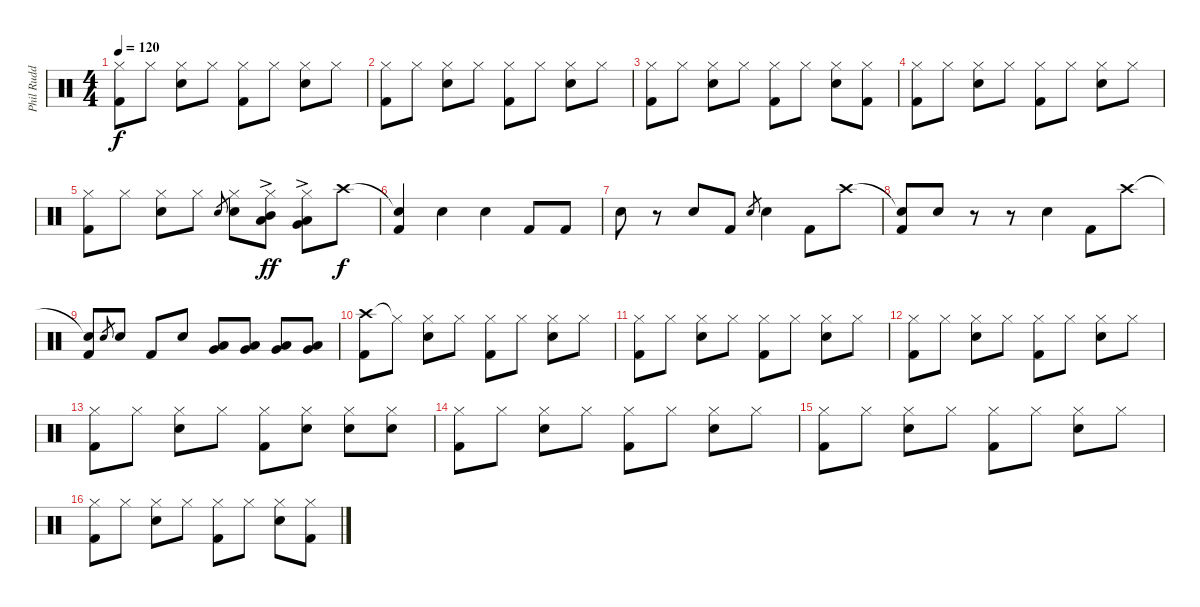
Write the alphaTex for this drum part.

\track ("Phil Rudd" "Phil Rudd") {instrument percussion}
\staff {score}
\articulation defaults
\ts (4 4)
\tempo 120
\clef neutral
\ks c
("Hi-Hat (closed)" "Kick (hit) 2").8{dy f} "Hi-Hat (closed)".8 ("Hi-Hat (closed)" "Snare (hit) 2").8 "Hi-Hat (closed)".8 ("Hi-Hat (closed)" "Kick (hit) 2").8 "Hi-Hat (closed)".8 ("Hi-Hat (closed)" "Snare (hit) 2").8 "Hi-Hat (closed)".8 |
("Hi-Hat (closed)" "Kick (hit) 2").8 "Hi-Hat (closed)".8 ("Hi-Hat (closed)" "Snare (hit) 2").8 "Hi-Hat (closed)".8 ("Hi-Hat (closed)" "Kick (hit) 2").8 "Hi-Hat (closed)".8 ("Hi-Hat (closed)" "Snare (hit) 2").8 "Hi-Hat (closed)".8 |
("Hi-Hat (closed)" "Kick (hit) 2").8 "Hi-Hat (closed)".8 ("Hi-Hat (closed)" "Snare (hit) 2").8 "Hi-Hat (closed)".8 ("Hi-Hat (closed)" "Kick (hit) 2").8 "Hi-Hat (closed)".8 ("Hi-Hat (closed)" "Snare (hit) 2").8 ("Hi-Hat (closed)" "Kick (hit) 2").8 |
("Hi-Hat (closed)" "Kick (hit) 2").8 "Hi-Hat (closed)".8 ("Hi-Hat (closed)" "Snare (hit) 2").8 "Hi-Hat (closed)".8 ("Hi-Hat (closed)" "Kick (hit) 2").8 "Hi-Hat (closed)".8 ("Hi-Hat (closed)" "Snare (hit) 2").8 "Hi-Hat (closed)".8 |
("Hi-Hat (closed)" "Kick (hit) 2").8 "Hi-Hat (closed)".8 ("Hi-Hat (closed)" "Snare (hit) 2").8 "Hi-Hat (closed)".8 "Snare (hit) 2".8{gr} ("Hi-Hat (closed)" "Snare (hit) 2").8 ("Hi-Hat (closed)" "Mid Tom (hit)"{ac} "Low Tom (hit)").8{dy ff balance 0} ("Hi-Hat (closed)" "Low Tom (hit)"{ac} "Very Low Tom (hit)").8{balance 16} "Crash high (hit)".8{dy f balance 8} |
("Snare (hit)"{t} "Kick (hit) 2").4 "Snare (hit) 2".4 "Snare (hit) 2".4 "Kick (hit) 2".8 "Kick (hit) 2".8 |
"Snare (hit) 2".8 r.8 "Snare (hit) 2".8 "Kick (hit) 2".8 "Snare (hit) 2".8{gr} "Snare (hit) 2".4 "Kick (hit) 2".8 "Crash high (hit)".8 |
("Snare (hit)"{t} "Kick (hit) 2").8 "Snare (hit) 2".8 r.8 r.8 "Snare (hit) 2".4 "Kick (hit) 2".8 "Crash high (hit)".8 |
("Snare (hit)"{t} "Kick (hit) 2").8 "Snare (hit) 2".8{gr} "Snare (hit) 2".8 "Kick (hit) 2".8 "Snare (hit) 2".8 ("Low Tom (hit)" "Very Low Tom (hit)").8{balance 16} ("Low Tom (hit)" "Very Low Tom (hit)").8{balance 10} ("Low Tom (hit)" "Very Low Tom (hit)").8{balance 4} ("Low Tom (hit)" "Very Low Tom (hit)").8{balance 0} |
("Crash high (hit)" "Kick (hit) 2").8{balance 8} "Hi-Hat (closed)"{t}.8 ("Hi-Hat (closed)" "Snare (hit) 2").8 "Hi-Hat (closed)".8 ("Hi-Hat (closed)" "Kick (hit) 2").8 "Hi-Hat (closed)".8 ("Hi-Hat (closed)" "Snare (hit) 2").8 "Hi-Hat (closed)".8 |
("Hi-Hat (closed)" "Kick (hit) 2").8 "Hi-Hat (closed)".8 ("Hi-Hat (closed)" "Snare (hit) 2").8 "Hi-Hat (closed)".8 ("Hi-Hat (closed)" "Kick (hit) 2").8 "Hi-Hat (closed)".8 ("Hi-Hat (closed)" "Snare (hit) 2").8 "Hi-Hat (closed)".8 |
("Hi-Hat (closed)" "Kick (hit) 2").8 "Hi-Hat (closed)".8 ("Hi-Hat (closed)" "Snare (hit) 2").8 "Hi-Hat (closed)".8 ("Hi-Hat (closed)" "Kick (hit) 2").8 "Hi-Hat (closed)".8 ("Hi-Hat (closed)" "Snare (hit) 2").8 "Hi-Hat (closed)".8 |
("Hi-Hat (closed)" "Kick (hit) 2").8 "Hi-Hat (closed)".8 ("Hi-Hat (closed)" "Snare (hit) 2").8 "Hi-Hat (closed)".8 ("Hi-Hat (closed)" "Kick (hit) 2").8 ("Hi-Hat (closed)" "Snare (hit) 2").8 ("Hi-Hat (closed)" "Snare (hit) 2").8 ("Hi-Hat (closed)" "Snare (hit) 2").8 |
("Hi-Hat (closed)" "Kick (hit) 2").8 "Hi-Hat (closed)".8 ("Hi-Hat (closed)" "Snare (hit) 2").8 "Hi-Hat (closed)".8 ("Hi-Hat (closed)" "Kick (hit) 2").8 "Hi-Hat (closed)".8 ("Hi-Hat (closed)" "Snare (hit) 2").8 "Hi-Hat (closed)".8 |
("Hi-Hat (closed)" "Kick (hit) 2").8 "Hi-Hat (closed)".8 ("Hi-Hat (closed)" "Snare (hit) 2").8 "Hi-Hat (closed)".8 ("Hi-Hat (closed)" "Kick (hit) 2").8 "Hi-Hat (closed)".8 ("Hi-Hat (closed)" "Snare (hit) 2").8 "Hi-Hat (closed)".8 |
("Hi-Hat (closed)" "Kick (hit) 2").8 "Hi-Hat (closed)".8 ("Hi-Hat (closed)" "Snare (hit) 2").8 "Hi-Hat (closed)".8 ("Hi-Hat (closed)" "Kick (hit) 2").8 "Hi-Hat (closed)".8 ("Hi-Hat (closed)" "Snare (hit) 2").8 ("Hi-Hat (closed)" "Kick (hit) 2").8
